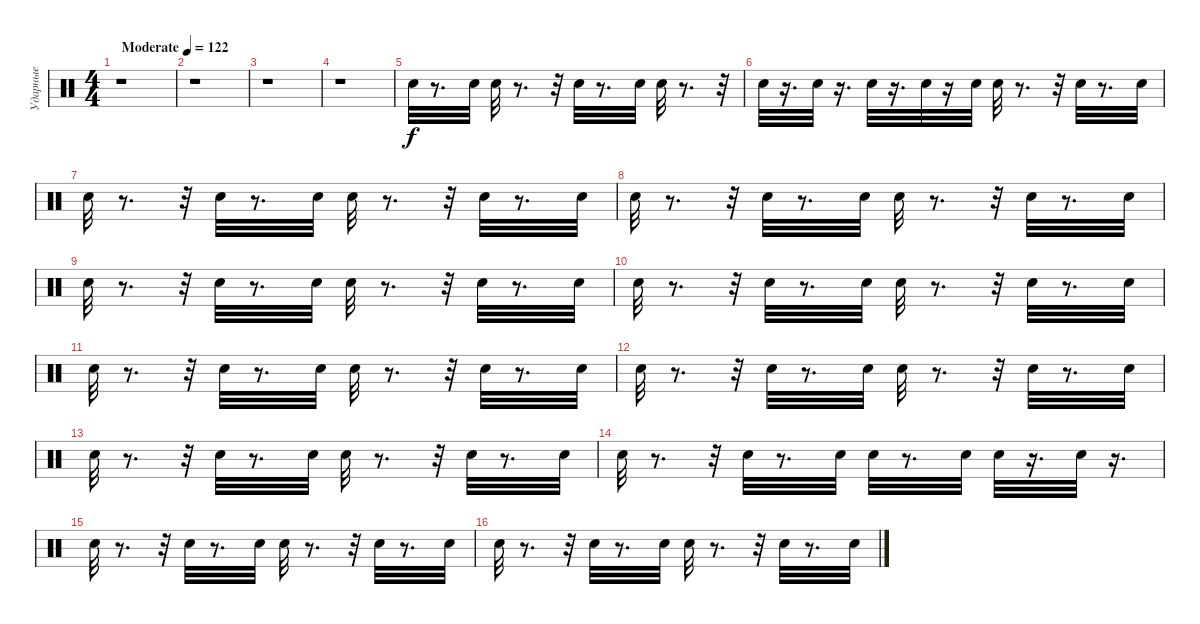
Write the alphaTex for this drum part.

\track ("Ударные" "Ударные") {instrument percussion}
\staff {score}
\articulation defaults
\ts (4 4)
\tempo (122 "Moderate")
\clef neutral
\ks c
r.1{dy f} |
r.1 |
r.1 |
r.1 |
"Snare (hit) 2".32 r.8{d} "Snare (hit) 2".32 "Snare (hit) 2".32 r.8{d} r.32 "Snare (hit) 2".32 r.8{d} "Snare (hit) 2".32 "Snare (hit) 2".32 r.8{d} r.32 |
"Snare (hit) 2".32 r.16{d} "Snare (hit) 2".32 r.16{d} "Snare (hit) 2".32 r.16{d} "Snare (hit) 2".32 r.16 "Snare (hit) 2".32 "Snare (hit) 2".32 r.8{d} r.32 "Snare (hit) 2".32 r.8{d} "Snare (hit) 2".32 |
"Snare (hit) 2".32 r.8{d} r.32 "Snare (hit) 2".32 r.8{d} "Snare (hit) 2".32 "Snare (hit) 2".32 r.8{d} r.32 "Snare (hit) 2".32 r.8{d} "Snare (hit) 2".32 |
"Snare (hit) 2".32 r.8{d} r.32 "Snare (hit) 2".32 r.8{d} "Snare (hit) 2".32 "Snare (hit) 2".32 r.8{d} r.32 "Snare (hit) 2".32 r.8{d} "Snare (hit) 2".32 |
"Snare (hit) 2".32 r.8{d} r.32 "Snare (hit) 2".32 r.8{d} "Snare (hit) 2".32 "Snare (hit) 2".32 r.8{d} r.32 "Snare (hit) 2".32 r.8{d} "Snare (hit) 2".32 |
"Snare (hit) 2".32 r.8{d} r.32 "Snare (hit) 2".32 r.8{d} "Snare (hit) 2".32 "Snare (hit) 2".32 r.8{d} r.32 "Snare (hit) 2".32 r.8{d} "Snare (hit) 2".32 |
"Snare (hit) 2".32 r.8{d} r.32 "Snare (hit) 2".32 r.8{d} "Snare (hit) 2".32 "Snare (hit) 2".32 r.8{d} r.32 "Snare (hit) 2".32 r.8{d} "Snare (hit) 2".32 |
"Snare (hit) 2".32 r.8{d} r.32 "Snare (hit) 2".32 r.8{d} "Snare (hit) 2".32 "Snare (hit) 2".32 r.8{d} r.32 "Snare (hit) 2".32 r.8{d} "Snare (hit) 2".32 |
"Snare (hit) 2".32 r.8{d} r.32 "Snare (hit) 2".32 r.8{d} "Snare (hit) 2".32 "Snare (hit) 2".32 r.8{d} r.32 "Snare (hit) 2".32 r.8{d} "Snare (hit) 2".32 |
"Snare (hit) 2".32 r.8{d} r.32 "Snare (hit) 2".32 r.8{d} "Snare (hit) 2".32 "Snare (hit) 2".32 r.8{d} "Snare (hit) 2".32 "Snare (hit) 2".32 r.16{d} "Snare (hit) 2".32 r.16{d} |
"Snare (hit) 2".32 r.8{d} r.32 "Snare (hit) 2".32 r.8{d} "Snare (hit) 2".32 "Snare (hit) 2".32 r.8{d} r.32 "Snare (hit) 2".32 r.8{d} "Snare (hit) 2".32 |
"Snare (hit) 2".32 r.8{d} r.32 "Snare (hit) 2".32 r.8{d} "Snare (hit) 2".32 "Snare (hit) 2".32 r.8{d} r.32 "Snare (hit) 2".32 r.8{d} "Snare (hit) 2".32
